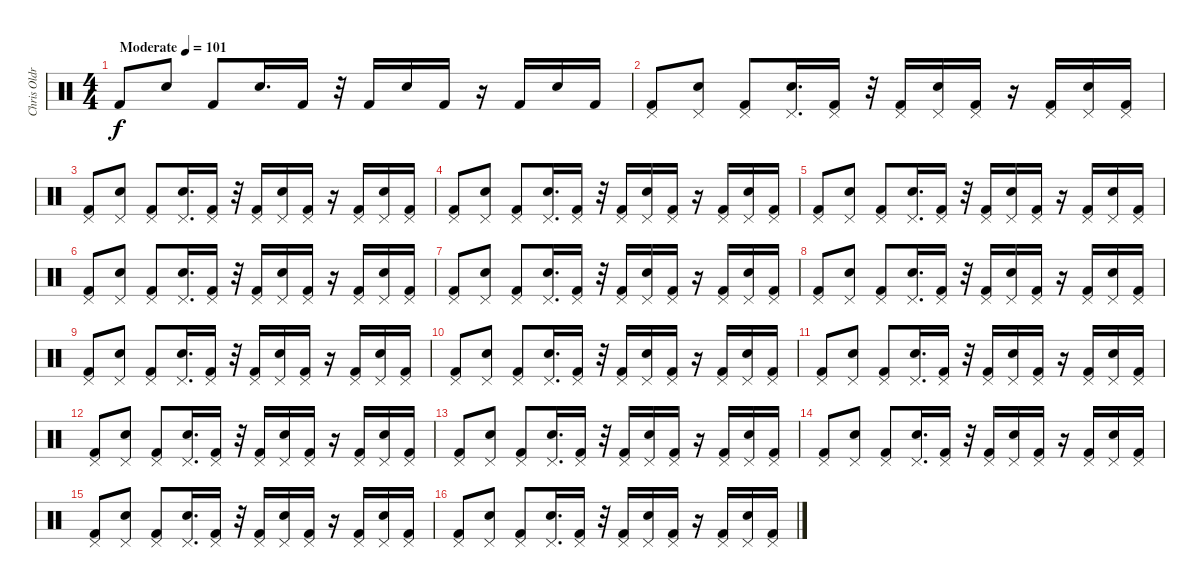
\track ("Chris Oldroyd" "Chris Oldr") {instrument percussion}
\staff {score}
\articulation defaults
\ts (4 4)
\tempo (101 "Moderate")
\clef neutral
\ks c "Kick (hit) 2".8{dy f} "Snare (hit) 2".8 "Kick (hit) 2".8 "Snare (hit) 2".16{d} "Kick (hit) 2".16
r.32 "Kick (hit) 2".16 "Snare (hit) 2".16 "Kick (hit) 2".16 r.16 "Kick (hit) 2".16 "Snare (hit) 2".16 "Kick (hit) 2".16 |
("Pedal Hi-Hat (hit)" "Kick (hit) 2").8 ("Pedal Hi-Hat (hit)" "Snare (hit) 2").8 ("Pedal Hi-Hat (hit)" "Kick (hit) 2").8 ("Pedal Hi-Hat (hit)" "Snare (hit) 2").16{d} ("Pedal Hi-Hat (hit)" "Kick (hit) 2").16 r.32 ("Pedal Hi-Hat (hit)" "Kick (hit) 2").16 ("Pedal Hi-Hat (hit)" "Snare (hit) 2").16 ("Pedal Hi-Hat (hit)" "Kick (hit) 2").16 r.16 ("Pedal Hi-Hat (hit)" "Kick (hit) 2").16 ("Pedal Hi-Hat (hit)" "Snare (hit) 2").16 ("Pedal Hi-Hat (hit)" "Kick (hit) 2").16 |
("Pedal Hi-Hat (hit)" "Kick (hit) 2").8 ("Pedal Hi-Hat (hit)" "Snare (hit) 2").8 ("Pedal Hi-Hat (hit)" "Kick (hit) 2").8 ("Pedal Hi-Hat (hit)" "Snare (hit) 2").16{d} ("Pedal Hi-Hat (hit)" "Kick (hit) 2").16 r.32 ("Pedal Hi-Hat (hit)" "Kick (hit) 2").16 ("Pedal Hi-Hat (hit)" "Snare (hit) 2").16 ("Pedal Hi-Hat (hit)" "Kick (hit) 2").16 r.16 ("Pedal Hi-Hat (hit)" "Kick (hit) 2").16 ("Pedal Hi-Hat (hit)" "Snare (hit) 2").16 ("Pedal Hi-Hat (hit)" "Kick (hit) 2").16 |
("Pedal Hi-Hat (hit)" "Kick (hit) 2").8 ("Pedal Hi-Hat (hit)" "Snare (hit) 2").8 ("Pedal Hi-Hat (hit)" "Kick (hit) 2").8 ("Pedal Hi-Hat (hit)" "Snare (hit) 2").16{d} ("Pedal Hi-Hat (hit)" "Kick (hit) 2").16 r.32 ("Pedal Hi-Hat (hit)" "Kick (hit) 2").16 ("Pedal Hi-Hat (hit)" "Snare (hit) 2").16 ("Pedal Hi-Hat (hit)" "Kick (hit) 2").16 r.16 ("Pedal Hi-Hat (hit)" "Kick (hit) 2").16 ("Pedal Hi-Hat (hit)" "Snare (hit) 2").16 ("Pedal Hi-Hat (hit)" "Kick (hit) 2").16 |
("Pedal Hi-Hat (hit)" "Kick (hit) 2").8 ("Pedal Hi-Hat (hit)" "Snare (hit) 2").8 ("Pedal Hi-Hat (hit)" "Kick (hit) 2").8 ("Pedal Hi-Hat (hit)" "Snare (hit) 2").16{d} ("Pedal Hi-Hat (hit)" "Kick (hit) 2").16 r.32 ("Pedal Hi-Hat (hit)" "Kick (hit) 2").16 ("Pedal Hi-Hat (hit)" "Snare (hit) 2").16 ("Pedal Hi-Hat (hit)" "Kick (hit) 2").16 r.16 ("Pedal Hi-Hat (hit)" "Kick (hit) 2").16 ("Pedal Hi-Hat (hit)" "Snare (hit) 2").16 ("Pedal Hi-Hat (hit)" "Kick (hit) 2").16 |
("Pedal Hi-Hat (hit)" "Kick (hit) 2").8 ("Pedal Hi-Hat (hit)" "Snare (hit) 2").8 ("Pedal Hi-Hat (hit)" "Kick (hit) 2").8 ("Pedal Hi-Hat (hit)" "Snare (hit) 2").16{d} ("Pedal Hi-Hat (hit)" "Kick (hit) 2").16 r.32 ("Pedal Hi-Hat (hit)" "Kick (hit) 2").16 ("Pedal Hi-Hat (hit)" "Snare (hit) 2").16 ("Pedal Hi-Hat (hit)" "Kick (hit) 2").16 r.16 ("Pedal Hi-Hat (hit)" "Kick (hit) 2").16 ("Pedal Hi-Hat (hit)" "Snare (hit) 2").16 ("Pedal Hi-Hat (hit)" "Kick (hit) 2").16 |
("Pedal Hi-Hat (hit)" "Kick (hit) 2").8 ("Pedal Hi-Hat (hit)" "Snare (hit) 2").8 ("Pedal Hi-Hat (hit)" "Kick (hit) 2").8 ("Pedal Hi-Hat (hit)" "Snare (hit) 2").16{d} ("Pedal Hi-Hat (hit)" "Kick (hit) 2").16 r.32 ("Pedal Hi-Hat (hit)" "Kick (hit) 2").16 ("Pedal Hi-Hat (hit)" "Snare (hit) 2").16 ("Pedal Hi-Hat (hit)" "Kick (hit) 2").16 r.16 ("Pedal Hi-Hat (hit)" "Kick (hit) 2").16 ("Pedal Hi-Hat (hit)" "Snare (hit) 2").16 ("Pedal Hi-Hat (hit)" "Kick (hit) 2").16 |
("Pedal Hi-Hat (hit)" "Kick (hit) 2").8 ("Pedal Hi-Hat (hit)" "Snare (hit) 2").8 ("Pedal Hi-Hat (hit)" "Kick (hit) 2").8 ("Pedal Hi-Hat (hit)" "Snare (hit) 2").16{d} ("Pedal Hi-Hat (hit)" "Kick (hit) 2").16 r.32 ("Pedal Hi-Hat (hit)" "Kick (hit) 2").16 ("Pedal Hi-Hat (hit)" "Snare (hit) 2").16 ("Pedal Hi-Hat (hit)" "Kick (hit) 2").16 r.16 ("Pedal Hi-Hat (hit)" "Kick (hit) 2").16 ("Pedal Hi-Hat (hit)" "Snare (hit) 2").16 ("Pedal Hi-Hat (hit)" "Kick (hit) 2").16 |
("Pedal Hi-Hat (hit)" "Kick (hit) 2").8 ("Pedal Hi-Hat (hit)" "Snare (hit) 2").8 ("Pedal Hi-Hat (hit)" "Kick (hit) 2").8 ("Pedal Hi-Hat (hit)" "Snare (hit) 2").16{d} ("Pedal Hi-Hat (hit)" "Kick (hit) 2").16 r.32 ("Pedal Hi-Hat (hit)" "Kick (hit) 2").16 ("Pedal Hi-Hat (hit)" "Snare (hit) 2").16 ("Pedal Hi-Hat (hit)" "Kick (hit) 2").16 r.16 ("Pedal Hi-Hat (hit)" "Kick (hit) 2").16 ("Pedal Hi-Hat (hit)" "Snare (hit) 2").16 ("Pedal Hi-Hat (hit)" "Kick (hit) 2").16 |
("Pedal Hi-Hat (hit)" "Kick (hit) 2").8 ("Pedal Hi-Hat (hit)" "Snare (hit) 2").8 ("Pedal Hi-Hat (hit)" "Kick (hit) 2").8 ("Pedal Hi-Hat (hit)" "Snare (hit) 2").16{d} ("Pedal Hi-Hat (hit)" "Kick (hit) 2").16 r.32 ("Pedal Hi-Hat (hit)" "Kick (hit) 2").16 ("Pedal Hi-Hat (hit)" "Snare (hit) 2").16 ("Pedal Hi-Hat (hit)" "Kick (hit) 2").16 r.16 ("Pedal Hi-Hat (hit)" "Kick (hit) 2").16 ("Pedal Hi-Hat (hit)" "Snare (hit) 2").16 ("Pedal Hi-Hat (hit)" "Kick (hit) 2").16 |
("Pedal Hi-Hat (hit)" "Kick (hit) 2").8 ("Pedal Hi-Hat (hit)" "Snare (hit) 2").8 ("Pedal Hi-Hat (hit)" "Kick (hit) 2").8 ("Pedal Hi-Hat (hit)" "Snare (hit) 2").16{d} ("Pedal Hi-Hat (hit)" "Kick (hit) 2").16 r.32 ("Pedal Hi-Hat (hit)" "Kick (hit) 2").16 ("Pedal Hi-Hat (hit)" "Snare (hit) 2").16 ("Pedal Hi-Hat (hit)" "Kick (hit) 2").16 r.16 ("Pedal Hi-Hat (hit)" "Kick (hit) 2").16 ("Pedal Hi-Hat (hit)" "Snare (hit) 2").16 ("Pedal Hi-Hat (hit)" "Kick (hit) 2").16 |
("Pedal Hi-Hat (hit)" "Kick (hit) 2").8 ("Pedal Hi-Hat (hit)" "Snare (hit) 2").8 ("Pedal Hi-Hat (hit)" "Kick (hit) 2").8 ("Pedal Hi-Hat (hit)" "Snare (hit) 2").16{d} ("Pedal Hi-Hat (hit)" "Kick (hit) 2").16 r.32 ("Pedal Hi-Hat (hit)" "Kick (hit) 2").16 ("Pedal Hi-Hat (hit)" "Snare (hit) 2").16 ("Pedal Hi-Hat (hit)" "Kick (hit) 2").16 r.16 ("Pedal Hi-Hat (hit)" "Kick (hit) 2").16 ("Pedal Hi-Hat (hit)" "Snare (hit) 2").16 ("Pedal Hi-Hat (hit)" "Kick (hit) 2").16 |
("Pedal Hi-Hat (hit)" "Kick (hit) 2").8 ("Pedal Hi-Hat (hit)" "Snare (hit) 2").8 ("Pedal Hi-Hat (hit)" "Kick (hit) 2").8 ("Pedal Hi-Hat (hit)" "Snare (hit) 2").16{d} ("Pedal Hi-Hat (hit)" "Kick (hit) 2").16 r.32 ("Pedal Hi-Hat (hit)" "Kick (hit) 2").16 ("Pedal Hi-Hat (hit)" "Snare (hit) 2").16 ("Pedal Hi-Hat (hit)" "Kick (hit) 2").16 r.16 ("Pedal Hi-Hat (hit)" "Kick (hit) 2").16 ("Pedal Hi-Hat (hit)" "Snare (hit) 2").16 ("Pedal Hi-Hat (hit)" "Kick (hit) 2").16 |
("Pedal Hi-Hat (hit)" "Kick (hit) 2").8 ("Pedal Hi-Hat (hit)" "Snare (hit) 2").8 ("Pedal Hi-Hat (hit)" "Kick (hit) 2").8 ("Pedal Hi-Hat (hit)" "Snare (hit) 2").16{d} ("Pedal Hi-Hat (hit)" "Kick (hit) 2").16 r.32 ("Pedal Hi-Hat (hit)" "Kick (hit) 2").16 ("Pedal Hi-Hat (hit)" "Snare (hit) 2").16 ("Pedal Hi-Hat (hit)" "Kick (hit) 2").16 r.16 ("Pedal Hi-Hat (hit)" "Kick (hit) 2").16 ("Pedal Hi-Hat (hit)" "Snare (hit) 2").16 ("Pedal Hi-Hat (hit)" "Kick (hit) 2").16 |
("Pedal Hi-Hat (hit)" "Kick (hit) 2").8 ("Pedal Hi-Hat (hit)" "Snare (hit) 2").8 ("Pedal Hi-Hat (hit)" "Kick (hit) 2").8 ("Pedal Hi-Hat (hit)" "Snare (hit) 2").16{d} ("Pedal Hi-Hat (hit)" "Kick (hit) 2").16 r.32 ("Pedal Hi-Hat (hit)" "Kick (hit) 2").16 ("Pedal Hi-Hat (hit)" "Snare (hit) 2").16 ("Pedal Hi-Hat (hit)" "Kick (hit) 2").16 r.16 ("Pedal Hi-Hat (hit)" "Kick (hit) 2").16 ("Pedal Hi-Hat (hit)" "Snare (hit) 2").16 ("Pedal Hi-Hat (hit)" "Kick (hit) 2").16 |
("Pedal Hi-Hat (hit)" "Kick (hit) 2").8 ("Pedal Hi-Hat (hit)" "Snare (hit) 2").8 ("Pedal Hi-Hat (hit)" "Kick (hit) 2").8 ("Pedal Hi-Hat (hit)" "Snare (hit) 2").16{d} ("Pedal Hi-Hat (hit)" "Kick (hit) 2").16 r.32 ("Pedal Hi-Hat (hit)" "Kick (hit) 2").16 ("Pedal Hi-Hat (hit)" "Snare (hit) 2").16 ("Pedal Hi-Hat (hit)" "Kick (hit) 2").16 r.16 ("Pedal Hi-Hat (hit)" "Kick (hit) 2").16 ("Pedal Hi-Hat (hit)" "Snare (hit) 2").16 ("Pedal Hi-Hat (hit)" "Kick (hit) 2").16
